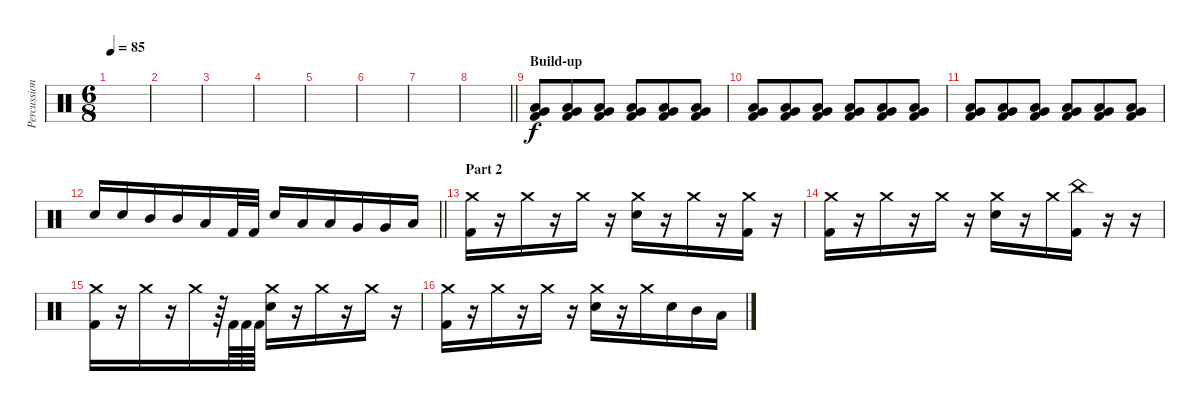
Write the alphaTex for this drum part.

\track ("Percussion" "Percussion") {instrument percussion}
\staff {score}
\articulation defaults
\ts (6 8)
\tempo 85
\clef neutral
\ks c
|
|
|
|
|
|
|
\barLineRight lightlight
|
\section ("" "Build-up")
("Low Tom (hit)" "Very Low Tom (hit)" "Kick (hit) 2").8 ("Low Tom (hit)" "Very Low Tom (hit)" "Kick (hit) 2").8 ("Low Tom (hit)" "Very Low Tom (hit)" "Kick (hit) 2").8 ("Low Tom (hit)" "Very Low Tom (hit)" "Kick (hit) 2").8 ("Low Tom (hit)" "Very Low Tom (hit)" "Kick (hit) 2").8 ("Low Tom (hit)" "Very Low Tom (hit)" "Kick (hit) 2").8 |
("Low Tom (hit)" "Very Low Tom (hit)" "Kick (hit) 2").8 ("Low Tom (hit)" "Very Low Tom (hit)" "Kick (hit) 2").8 ("Low Tom (hit)" "Very Low Tom (hit)" "Kick (hit) 2").8 ("Low Tom (hit)" "Very Low Tom (hit)" "Kick (hit) 2").8 ("Low Tom (hit)" "Very Low Tom (hit)" "Kick (hit) 2").8 ("Low Tom (hit)" "Very Low Tom (hit)" "Kick (hit) 2").8 |
("Low Tom (hit)" "Very Low Tom (hit)" "Kick (hit) 2").8 ("Low Tom (hit)" "Very Low Tom (hit)" "Kick (hit) 2").8 ("Low Tom (hit)" "Very Low Tom (hit)" "Kick (hit) 2").8 ("Low Tom (hit)" "Very Low Tom (hit)" "Kick (hit) 2").8 ("Low Tom (hit)" "Very Low Tom (hit)" "Kick (hit) 2").8 ("Low Tom (hit)" "Very Low Tom (hit)" "Kick (hit) 2").8 |
\barLineRight lightlight "Electric Snare (hit)".16 "Electric Snare (hit)".16 "Mid Tom (hit)".16 "Mid Tom (hit)".16 "Low Tom (hit)".16 "Kick (hit) 2".32 "Kick (hit) 2".32 "Electric Snare (hit)".16 "Low Tom (hit)".16 "Low Tom (hit)".16 "Very Low Tom (hit)".16 "Very Low Tom (hit)".16 "Low Floor Tom (hit)".16
|
\section ("" "Part 2")
("Crash medium (hit)" "Kick (hit) 2").16 r.16 "Crash medium (hit)".16 r.16 "Crash medium (hit)".16 r.16 ("Crash medium (hit)" "Electric Snare (hit)").16 r.16 "Crash medium (hit)".16 r.16 ("Crash medium (hit)" "Kick (hit) 2").16 r.16 |
("Crash medium (hit)" "Kick (hit) 2").16 r.16 "Crash medium (hit)".16 r.16 "Crash medium (hit)".16 r.16 ("Crash medium (hit)" "Electric Snare (hit)").16 r.16 "Crash medium (hit)".16 ("China (hit)" "Kick (hit) 2").16 r.16 r.16 |
("Crash medium (hit)" "Kick (hit) 2").16 r.16 "Crash medium (hit)".16 r.16 "Crash medium (hit)".16 r.64 "Kick (hit) 2".64 "Kick (hit) 2".64 "Kick (hit) 2".64 ("Crash medium (hit)" "Electric Snare (hit)").16 r.16 "Crash medium (hit)".16 r.16 "Crash medium (hit)".16 r.16 |
("Crash medium (hit)" "Kick (hit) 2").16 r.16 "Crash medium (hit)".16 r.16 "Crash medium (hit)".16 r.16 ("Crash medium (hit)" "Electric Snare (hit)").16 r.16 "Crash medium (hit)".16 "Electric Snare (hit)".16 "Mid Tom (hit)".16 "Low Tom (hit)".16
